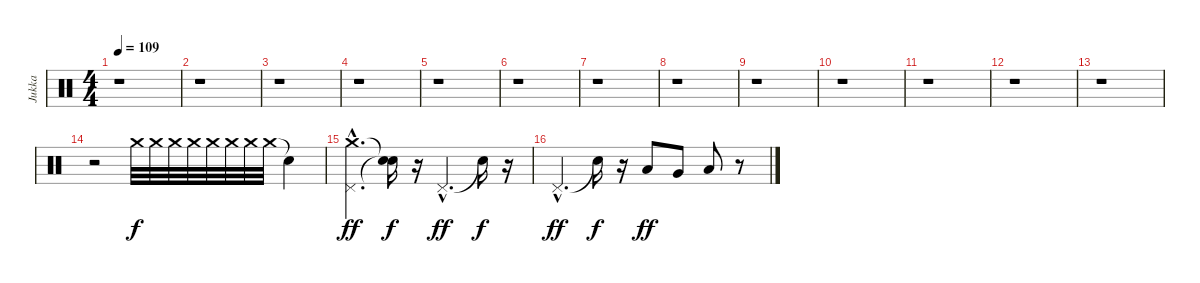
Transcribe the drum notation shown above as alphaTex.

\track ("Jukka" "Jukka") {instrument percussion}
\staff {score}
\articulation defaults
\ts (4 4)
\tempo 109
\clef neutral
\ks c
r.1{dy f} |
r.1 |
r.1 |
r.1 |
r.1 |
r.1 |
r.1 |
r.1 |
r.1 |
r.1 |
r.1 |
r.1 |
r.1 |
r.2 "Crash medium (hit)".32{volume 3} "Crash medium (hit)".32{volume 5} "Crash medium (hit)".32{volume 7} "Crash medium (hit)".32{volume 9} "Crash medium (hit)".32{volume 11} "Crash medium (hit)".32{volume 13} "Crash medium (hit)".32{volume 14} "Crash medium (hit)".32{volume 16} "Snare (hit)"{t}.4 |
("Pedal Hi-Hat (hit)"{hac} "Crash medium (hit)"{hac}).4{d dy ff} ("Snare (hit)"{t} "Snare (hit)"{t}).16{dy f} r.16 "Pedal Hi-Hat (hit)"{hac}.4{d dy ff} "Snare (hit)"{t}.16{dy f} r.16 |
"Pedal Hi-Hat (hit)"{hac}.4{d dy ff} "Snare (hit)"{t}.16{dy f} r.16 "Low Tom (hit)".8{dy ff} "Very Low Tom (hit)".8 "Low Floor Tom (hit)".8 r.8
